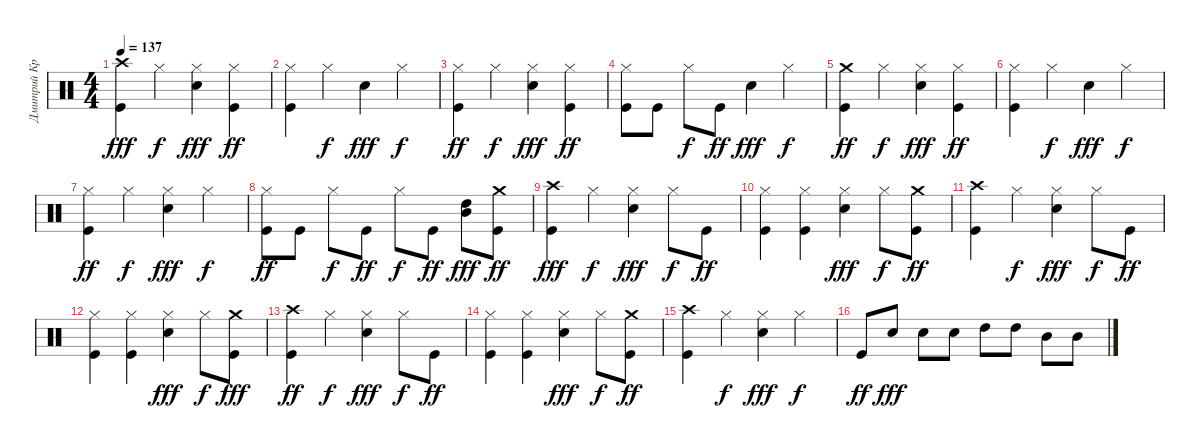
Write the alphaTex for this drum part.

\track ("Дмитрий Кревенков" "Дмитрий Кр") {instrument percussion}
\staff {score}
\articulation defaults
\ts (4 4)
\tempo 137
\clef neutral
\ks c
("Kick (hit)" "Crash high (hit)").4{dy fff} "Hi-Hat (closed)".4{dy f} ("Electric Snare (hit)" "Hi-Hat (closed)").4{dy fff} ("Kick (hit)" "Hi-Hat (closed)").4{dy ff} |
("Kick (hit)" "Hi-Hat (closed)").4 "Hi-Hat (closed)".4{dy f} "Electric Snare (hit)".4{dy fff} "Hi-Hat (closed)".4{dy f} |
("Kick (hit)" "Hi-Hat (closed)").4{dy ff} "Hi-Hat (closed)".4{dy f} ("Electric Snare (hit)" "Hi-Hat (closed)").4{dy fff} ("Kick (hit)" "Hi-Hat (closed)").4{dy ff} |
("Kick (hit)" "Hi-Hat (closed)").8 "Kick (hit)".8 "Hi-Hat (closed)".8{dy f} "Kick (hit)".8{dy ff} "Electric Snare (hit)".4{dy fff} "Hi-Hat (closed)".4{dy f} |
("Crash medium (hit)" "Kick (hit)").4{dy ff} "Hi-Hat (closed)".4{dy f} ("Electric Snare (hit)" "Hi-Hat (closed)").4{dy fff} ("Kick (hit)" "Hi-Hat (closed)").4{dy ff} |
("Kick (hit)" "Hi-Hat (closed)").4 "Hi-Hat (closed)".4{dy f} "Electric Snare (hit)".4{dy fff} "Hi-Hat (closed)".4{dy f} |
("Kick (hit)" "Hi-Hat (closed)").4{dy ff} "Hi-Hat (closed)".4{dy f} ("Electric Snare (hit)" "Hi-Hat (closed)").4{dy fff} "Hi-Hat (closed)".4{dy f} |
("Kick (hit)" "Hi-Hat (closed)").8{dy ff} "Kick (hit)".8 "Hi-Hat (closed)".8{dy f} "Kick (hit)".8{dy ff} "Hi-Hat (closed)".8{dy f} "Kick (hit)".8{dy ff} ("Mid Tom (hit)" "High Tom (hit)").8{dy fff} ("Crash medium (hit)" "Kick (hit)").8{dy ff} |
("Kick (hit)" "Crash high (hit)").4{dy fff} "Hi-Hat (closed)".4{dy f} ("Electric Snare (hit)" "Hi-Hat (closed)").4{dy fff} "Hi-Hat (closed)".8{dy f} "Kick (hit)".8{dy ff} |
("Kick (hit)" "Hi-Hat (closed)").4 ("Kick (hit)" "Hi-Hat (closed)").4 ("Electric Snare (hit)" "Hi-Hat (closed)").4{dy fff} "Hi-Hat (closed)".8{dy f} ("Crash medium (hit)" "Kick (hit)").8{dy ff} |
("Crash high (hit)" "Kick (hit)").4 "Hi-Hat (closed)".4{dy f} ("Electric Snare (hit)" "Hi-Hat (closed)").4{dy fff} "Hi-Hat (closed)".8{dy f} "Kick (hit)".8{dy ff} |
("Kick (hit)" "Hi-Hat (closed)").4 ("Kick (hit)" "Hi-Hat (closed)").4 ("Electric Snare (hit)" "Hi-Hat (closed)").4{dy fff} "Hi-Hat (closed)".8{dy f} ("Kick (hit)" "Crash medium (hit)").8{dy fff} |
("Crash high (hit)" "Kick (hit)").4{dy ff} "Hi-Hat (closed)".4{dy f} ("Electric Snare (hit)" "Hi-Hat (closed)").4{dy fff} "Hi-Hat (closed)".8{dy f} "Kick (hit)".8{dy ff} |
("Kick (hit)" "Hi-Hat (closed)").4 ("Kick (hit)" "Hi-Hat (closed)").4 ("Electric Snare (hit)" "Hi-Hat (closed)").4{dy fff} "Hi-Hat (closed)".8{dy f} ("Crash medium (hit)" "Kick (hit)").8{dy ff} |
("Crash high (hit)" "Kick (hit)").4 "Hi-Hat (closed)".4{dy f} ("Electric Snare (hit)" "Hi-Hat (closed)").4{dy fff} "Hi-Hat (closed)".4{dy f} |
"Kick (hit)".8{dy ff} "Electric Snare (hit)".8{dy fff} "Electric Snare (hit)".8 "Electric Snare (hit)".8 "High Tom (hit)".8 "High Tom (hit)".8 "Mid Tom (hit)".8 "Mid Tom (hit)".8
